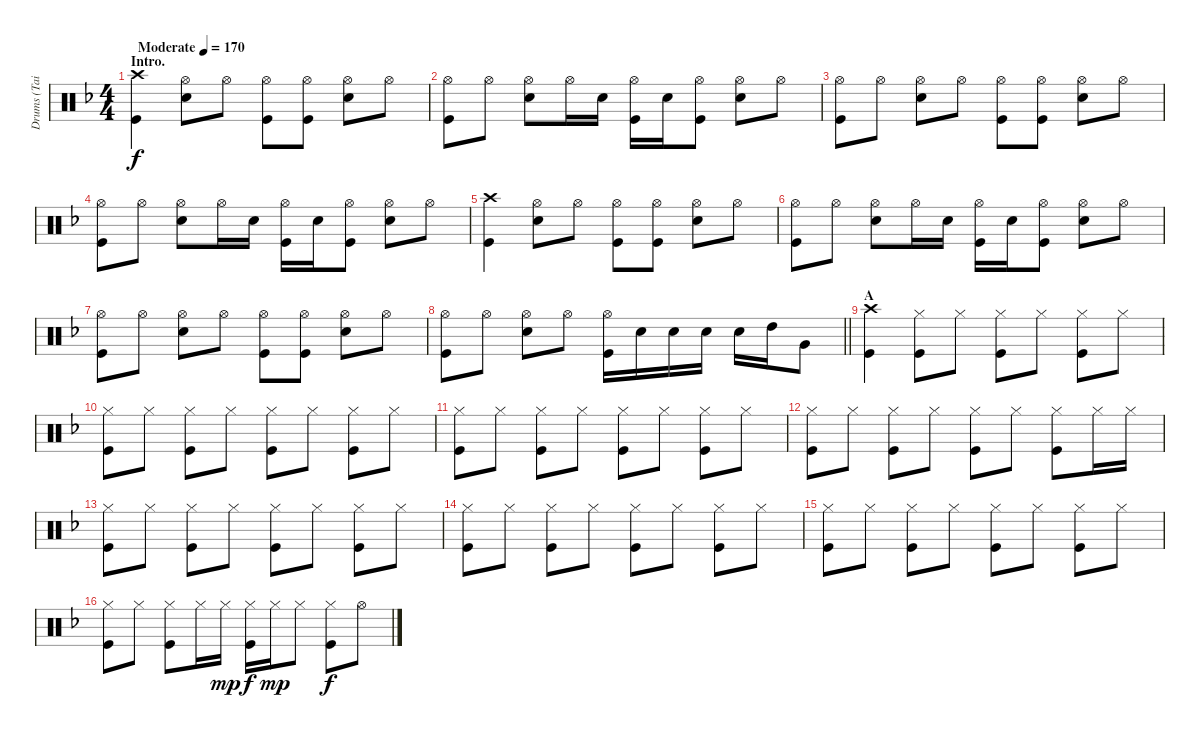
\track ("Drums (Tainaka Ritsu)" "Drums (Tai") {instrument percussion}
\staff {score}
\articulation defaults
\ts (4 4)
\section ("" "Intro.")
\tempo (170 "Moderate")
\clef neutral
\ks f
("Crash high (hit)" "Kick (hit)").4{dy f} ("Hi-Hat (open)" "Snare (hit) 2").8 "Hi-Hat (open)".8 ("Hi-Hat (open)" "Kick (hit)").8 ("Hi-Hat (open)" "Kick (hit)").8 ("Hi-Hat (open)" "Snare (hit) 2").8 "Hi-Hat (open)".8 |
("Hi-Hat (open)" "Kick (hit)").8 "Hi-Hat (open)".8 ("Hi-Hat (open)" "Snare (hit) 2").8 "Hi-Hat (open)".16 "Snare (hit) 2".16 ("Hi-Hat (open)" "Kick (hit)").16 "Snare (hit) 2".16 ("Hi-Hat (open)" "Kick (hit)").8 ("Hi-Hat (open)" "Snare (hit) 2").8 "Hi-Hat (open)".8 |
("Hi-Hat (open)" "Kick (hit)").8 "Hi-Hat (open)".8 ("Hi-Hat (open)" "Snare (hit) 2").8 "Hi-Hat (open)".8 ("Hi-Hat (open)" "Kick (hit)").8 ("Hi-Hat (open)" "Kick (hit)").8 ("Hi-Hat (open)" "Snare (hit) 2").8 "Hi-Hat (open)".8 |
("Hi-Hat (open)" "Kick (hit)").8 "Hi-Hat (open)".8 ("Hi-Hat (open)" "Snare (hit) 2").8 "Hi-Hat (open)".16 "Snare (hit) 2".16 ("Hi-Hat (open)" "Kick (hit)").16 "Snare (hit) 2".16 ("Hi-Hat (open)" "Kick (hit)").8 ("Hi-Hat (open)" "Snare (hit) 2").8 "Hi-Hat (open)".8 |
("Crash high (hit)" "Kick (hit)").4 ("Hi-Hat (open)" "Snare (hit) 2").8 "Hi-Hat (open)".8 ("Hi-Hat (open)" "Kick (hit)").8 ("Hi-Hat (open)" "Kick (hit)").8 ("Hi-Hat (open)" "Snare (hit) 2").8 "Hi-Hat (open)".8 |
("Hi-Hat (open)" "Kick (hit)").8 "Hi-Hat (open)".8 ("Hi-Hat (open)" "Snare (hit) 2").8 "Hi-Hat (open)".16 "Snare (hit) 2".16 ("Hi-Hat (open)" "Kick (hit)").16 "Snare (hit) 2".16 ("Hi-Hat (open)" "Kick (hit)").8 ("Hi-Hat (open)" "Snare (hit) 2").8 "Hi-Hat (open)".8 |
("Hi-Hat (open)" "Kick (hit)").8 "Hi-Hat (open)".8 ("Hi-Hat (open)" "Snare (hit) 2").8 "Hi-Hat (open)".8 ("Hi-Hat (open)" "Kick (hit)").8 ("Hi-Hat (open)" "Kick (hit)").8 ("Hi-Hat (open)" "Snare (hit) 2").8 "Hi-Hat (open)".8 |
\barLineRight lightlight
("Hi-Hat (open)" "Kick (hit)").8 "Hi-Hat (open)".8 ("Hi-Hat (open)" "Snare (hit) 2").8 "Hi-Hat (open)".8 ("Hi-Hat (open)" "Kick (hit)").16 "Snare (hit) 2".16 "Snare (hit) 2".16 "Snare (hit) 2".16 "Snare (hit) 2".16 "High Tom (hit)".16 "Very Low Tom (hit)".8 |
\section ("" "A")
("Crash high (hit)" "Kick (hit)").4 ("Hi-Hat (closed)" "Kick (hit)").8 "Hi-Hat (closed)".8 ("Hi-Hat (closed)" "Kick (hit)").8 "Hi-Hat (closed)".8 ("Hi-Hat (closed)" "Kick (hit)").8 "Hi-Hat (closed)".8 |
("Hi-Hat (closed)" "Kick (hit)").8 "Hi-Hat (closed)".8 ("Hi-Hat (closed)" "Kick (hit)").8 "Hi-Hat (closed)".8 ("Hi-Hat (closed)" "Kick (hit)").8 "Hi-Hat (closed)".8 ("Hi-Hat (closed)" "Kick (hit)").8 "Hi-Hat (closed)".8 |
("Hi-Hat (closed)" "Kick (hit)").8 "Hi-Hat (closed)".8 ("Hi-Hat (closed)" "Kick (hit)").8 "Hi-Hat (closed)".8 ("Hi-Hat (closed)" "Kick (hit)").8 "Hi-Hat (closed)".8 ("Hi-Hat (closed)" "Kick (hit)").8 "Hi-Hat (closed)".8 |
("Hi-Hat (closed)" "Kick (hit)").8 "Hi-Hat (closed)".8 ("Hi-Hat (closed)" "Kick (hit)").8 "Hi-Hat (closed)".8 ("Hi-Hat (closed)" "Kick (hit)").8 "Hi-Hat (closed)".8 ("Hi-Hat (closed)" "Kick (hit)").8 "Hi-Hat (closed)".16 "Hi-Hat (closed)".16 |
("Hi-Hat (closed)" "Kick (hit)").8 "Hi-Hat (closed)".8 ("Hi-Hat (closed)" "Kick (hit)").8 "Hi-Hat (closed)".8 ("Hi-Hat (closed)" "Kick (hit)").8 "Hi-Hat (closed)".8 ("Hi-Hat (closed)" "Kick (hit)").8 "Hi-Hat (closed)".8 |
("Hi-Hat (closed)" "Kick (hit)").8 "Hi-Hat (closed)".8 ("Hi-Hat (closed)" "Kick (hit)").8 "Hi-Hat (closed)".8 ("Hi-Hat (closed)" "Kick (hit)").8 "Hi-Hat (closed)".8 ("Hi-Hat (closed)" "Kick (hit)").8 "Hi-Hat (closed)".8 |
("Hi-Hat (closed)" "Kick (hit)").8 "Hi-Hat (closed)".8 ("Hi-Hat (closed)" "Kick (hit)").8 "Hi-Hat (closed)".8 ("Hi-Hat (closed)" "Kick (hit)").8 "Hi-Hat (closed)".8 ("Hi-Hat (closed)" "Kick (hit)").8 "Hi-Hat (closed)".8 |
("Hi-Hat (closed)" "Kick (hit)").8 "Hi-Hat (closed)".8 ("Hi-Hat (closed)" "Kick (hit)").8 "Hi-Hat (closed)".16 "Hi-Hat (closed)".16{dy mp} ("Hi-Hat (closed)" "Kick (hit)").16{dy f} "Hi-Hat (closed)".16{dy mp} "Hi-Hat (closed)".8 ("Hi-Hat (closed)" "Kick (hit)").8{dy f} "Hi-Hat (open)".8
